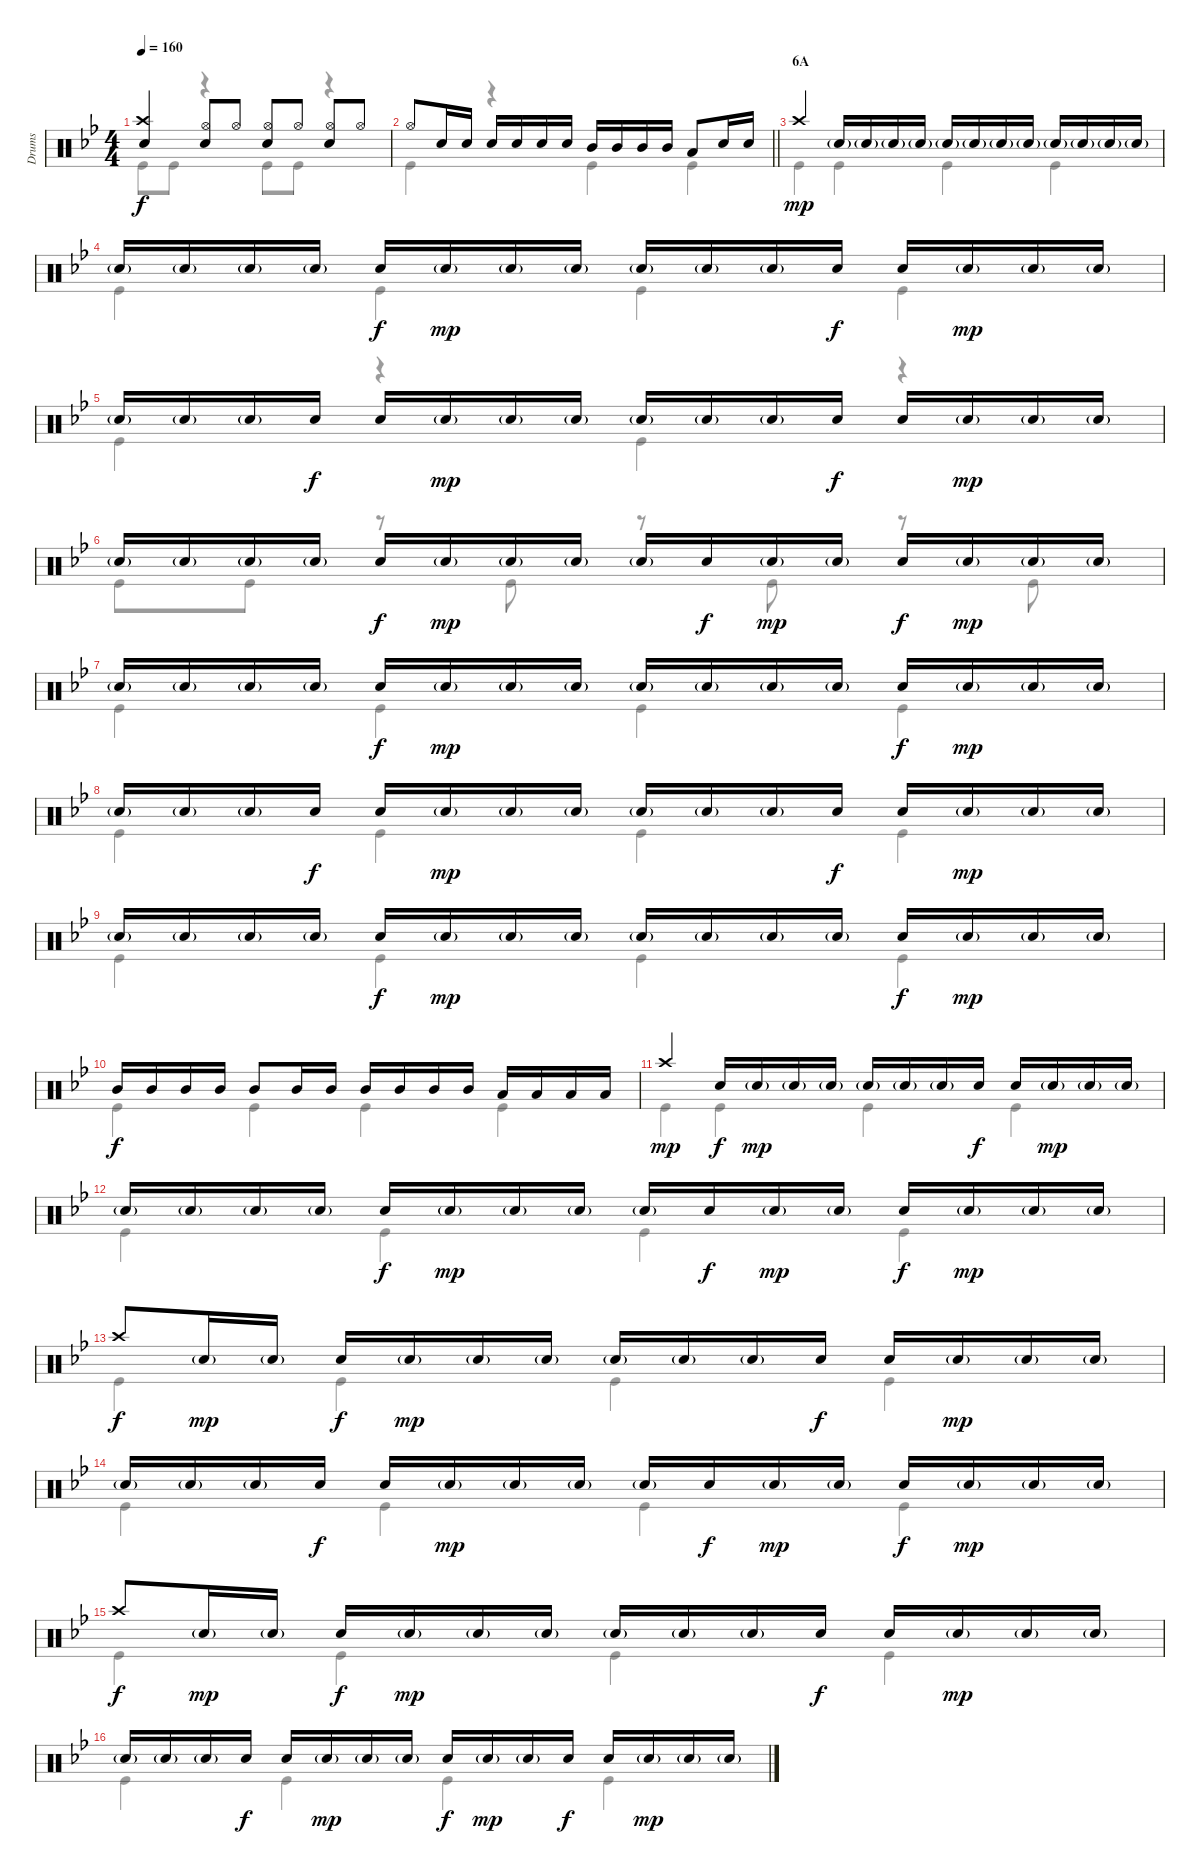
\track ("Drums" "Drums") {instrument percussion}
\staff {score}
\articulation defaults
\voice
\ts (4 4)
\tempo 160
\clef neutral
\ks bb
("Crash high (hit)" "Snare (hit) 2").4{dy f} ("Hi-Hat (open)" "Snare (hit) 2").8 "Hi-Hat (open)".8 ("Hi-Hat (open)" "Snare (hit) 2").8 "Hi-Hat (open)".8 ("Hi-Hat (open)" "Snare (hit) 2").8 "Hi-Hat (open)".8 |
\barLineRight lightlight "Hi-Hat (open)".8 "Snare (hit) 2".16 "Snare (hit) 2".16 "Snare (hit) 2".16 "Snare (hit) 2".16 "Snare (hit) 2".16 "Snare (hit) 2".16 "Mid Tom (hit)".16 "Mid Tom (hit)".16 "Mid Tom (hit)".16 "Mid Tom (hit)".16 "Low Tom (hit)".8 "Snare (hit) 2".16 "Snare (hit) 2".16
|
\section ("" "6A")
"Crash high (hit)".4{dy mp} "Snare (hit) 2"{g}.16 "Snare (hit) 2"{g}.16 "Snare (hit) 2"{g}.16 "Snare (hit) 2"{g}.16 "Snare (hit) 2"{g}.16 "Snare (hit) 2"{g}.16 "Snare (hit) 2"{g}.16 "Snare (hit) 2"{g}.16 "Snare (hit) 2"{g}.16 "Snare (hit) 2"{g}.16 "Snare (hit) 2"{g}.16 "Snare (hit) 2"{g}.16 |
"Snare (hit) 2"{g}.16 "Snare (hit) 2"{g}.16 "Snare (hit) 2"{g}.16 "Snare (hit) 2"{g}.16 "Snare (hit) 2".16{dy f} "Snare (hit) 2"{g}.16{dy mp} "Snare (hit) 2"{g}.16 "Snare (hit) 2"{g}.16 "Snare (hit) 2"{g}.16 "Snare (hit) 2"{g}.16 "Snare (hit) 2"{g}.16 "Snare (hit) 2".16{dy f} "Snare (hit) 2".16 "Snare (hit) 2"{g}.16{dy mp} "Snare (hit) 2"{g}.16 "Snare (hit) 2"{g}.16 |
"Snare (hit) 2"{g}.16 "Snare (hit) 2"{g}.16 "Snare (hit) 2"{g}.16 "Snare (hit) 2".16{dy f} "Snare (hit) 2".16 "Snare (hit) 2"{g}.16{dy mp} "Snare (hit) 2"{g}.16 "Snare (hit) 2"{g}.16 "Snare (hit) 2"{g}.16 "Snare (hit) 2"{g}.16 "Snare (hit) 2"{g}.16 "Snare (hit) 2".16{dy f} "Snare (hit) 2".16 "Snare (hit) 2"{g}.16{dy mp} "Snare (hit) 2"{g}.16 "Snare (hit) 2"{g}.16 |
"Snare (hit) 2"{g}.16 "Snare (hit) 2"{g}.16 "Snare (hit) 2"{g}.16 "Snare (hit) 2"{g}.16 "Snare (hit) 2".16{dy f} "Snare (hit) 2"{g}.16{dy mp} "Snare (hit) 2"{g}.16 "Snare (hit) 2"{g}.16 "Snare (hit) 2"{g}.16 "Snare (hit) 2".16{dy f} "Snare (hit) 2"{g}.16{dy mp} "Snare (hit) 2"{g}.16 "Snare (hit) 2".16{dy f} "Snare (hit) 2"{g}.16{dy mp} "Snare (hit) 2"{g}.16 "Snare (hit) 2"{g}.16 |
"Snare (hit) 2"{g}.16 "Snare (hit) 2"{g}.16 "Snare (hit) 2"{g}.16 "Snare (hit) 2"{g}.16 "Snare (hit) 2".16{dy f} "Snare (hit) 2"{g}.16{dy mp} "Snare (hit) 2"{g}.16 "Snare (hit) 2"{g}.16 "Snare (hit) 2"{g}.16 "Snare (hit) 2"{g}.16 "Snare (hit) 2"{g}.16 "Snare (hit) 2"{g}.16 "Snare (hit) 2".16{dy f} "Snare (hit) 2"{g}.16{dy mp} "Snare (hit) 2"{g}.16 "Snare (hit) 2"{g}.16 |
"Snare (hit) 2"{g}.16 "Snare (hit) 2"{g}.16 "Snare (hit) 2"{g}.16 "Snare (hit) 2".16{dy f} "Snare (hit) 2".16 "Snare (hit) 2"{g}.16{dy mp} "Snare (hit) 2"{g}.16 "Snare (hit) 2"{g}.16 "Snare (hit) 2"{g}.16 "Snare (hit) 2"{g}.16 "Snare (hit) 2"{g}.16 "Snare (hit) 2".16{dy f} "Snare (hit) 2".16 "Snare (hit) 2"{g}.16{dy mp} "Snare (hit) 2"{g}.16 "Snare (hit) 2"{g}.16 |
"Snare (hit) 2"{g}.16 "Snare (hit) 2"{g}.16 "Snare (hit) 2"{g}.16 "Snare (hit) 2"{g}.16 "Snare (hit) 2".16{dy f} "Snare (hit) 2"{g}.16{dy mp} "Snare (hit) 2"{g}.16 "Snare (hit) 2"{g}.16 "Snare (hit) 2"{g}.16 "Snare (hit) 2"{g}.16 "Snare (hit) 2"{g}.16 "Snare (hit) 2"{g}.16 "Snare (hit) 2".16{dy f} "Snare (hit) 2"{g}.16{dy mp} "Snare (hit) 2"{g}.16 "Snare (hit) 2"{g}.16 |
"Mid Tom (hit)".16{dy f} "Mid Tom (hit)".16 "Mid Tom (hit)".16 "Mid Tom (hit)".16 "Mid Tom (hit)".8 "Mid Tom (hit)".16 "Mid Tom (hit)".16 "Mid Tom (hit)".16 "Mid Tom (hit)".16 "Mid Tom (hit)".16 "Mid Tom (hit)".16 "Low Tom (hit)".16 "Low Tom (hit)".16 "Low Tom (hit)".16 "Low Tom (hit)".16 |
"Crash high (hit)".4{dy mp} "Snare (hit) 2".16{dy f} "Snare (hit) 2"{g}.16{dy mp} "Snare (hit) 2"{g}.16 "Snare (hit) 2"{g}.16 "Snare (hit) 2"{g}.16 "Snare (hit) 2"{g}.16 "Snare (hit) 2"{g}.16 "Snare (hit) 2".16{dy f} "Snare (hit) 2".16 "Snare (hit) 2"{g}.16{dy mp} "Snare (hit) 2"{g}.16 "Snare (hit) 2"{g}.16 |
"Snare (hit) 2"{g}.16 "Snare (hit) 2"{g}.16 "Snare (hit) 2"{g}.16 "Snare (hit) 2"{g}.16 "Snare (hit) 2".16{dy f} "Snare (hit) 2"{g}.16{dy mp} "Snare (hit) 2"{g}.16 "Snare (hit) 2"{g}.16 "Snare (hit) 2"{g}.16 "Snare (hit) 2".16{dy f} "Snare (hit) 2"{g}.16{dy mp} "Snare (hit) 2"{g}.16 "Snare (hit) 2".16{dy f} "Snare (hit) 2"{g}.16{dy mp} "Snare (hit) 2"{g}.16 "Snare (hit) 2"{g}.16 |
"Crash high (hit)".8{dy f} "Snare (hit) 2"{g}.16{dy mp} "Snare (hit) 2"{g}.16 "Snare (hit) 2".16{dy f} "Snare (hit) 2"{g}.16{dy mp} "Snare (hit) 2"{g}.16 "Snare (hit) 2"{g}.16 "Snare (hit) 2"{g}.16 "Snare (hit) 2"{g}.16 "Snare (hit) 2"{g}.16 "Snare (hit) 2".16{dy f} "Snare (hit) 2".16 "Snare (hit) 2"{g}.16{dy mp} "Snare (hit) 2"{g}.16 "Snare (hit) 2"{g}.16 |
"Snare (hit) 2"{g}.16 "Snare (hit) 2"{g}.16 "Snare (hit) 2"{g}.16 "Snare (hit) 2".16{dy f} "Snare (hit) 2".16 "Snare (hit) 2"{g}.16{dy mp} "Snare (hit) 2"{g}.16 "Snare (hit) 2"{g}.16 "Snare (hit) 2"{g}.16 "Snare (hit) 2".16{dy f} "Snare (hit) 2"{g}.16{dy mp} "Snare (hit) 2"{g}.16 "Snare (hit) 2".16{dy f} "Snare (hit) 2"{g}.16{dy mp} "Snare (hit) 2"{g}.16 "Snare (hit) 2"{g}.16 |
"Crash high (hit)".8{dy f} "Snare (hit) 2"{g}.16{dy mp} "Snare (hit) 2"{g}.16 "Snare (hit) 2".16{dy f} "Snare (hit) 2"{g}.16{dy mp} "Snare (hit) 2"{g}.16 "Snare (hit) 2"{g}.16 "Snare (hit) 2"{g}.16 "Snare (hit) 2"{g}.16 "Snare (hit) 2"{g}.16 "Snare (hit) 2".16{dy f} "Snare (hit) 2".16 "Snare (hit) 2"{g}.16{dy mp} "Snare (hit) 2"{g}.16 "Snare (hit) 2"{g}.16 |
"Snare (hit) 2"{g}.16 "Snare (hit) 2"{g}.16 "Snare (hit) 2"{g}.16 "Snare (hit) 2".16{dy f} "Snare (hit) 2".16 "Snare (hit) 2"{g}.16{dy mp} "Snare (hit) 2"{g}.16 "Snare (hit) 2"{g}.16 "Snare (hit) 2".16{dy f} "Snare (hit) 2"{g}.16{dy mp} "Snare (hit) 2"{g}.16 "Snare (hit) 2".16{dy f} "Snare (hit) 2".16 "Snare (hit) 2"{g}.16{dy mp} "Snare (hit) 2"{g}.16 "Snare (hit) 2"{g}.16
\voice
\clef neutral
\ottava regular
\simile none
\ks bb "Kick (hit)".8{dy f} "Kick (hit)".8
r.4 "Kick (hit)".8 "Kick (hit)".8 r.4 |
\barLineRight lightlight "Kick (hit)".4
r.4 "Kick (hit)".4 "Kick (hit)".4 |
"Kick (hit)".4 "Kick (hit)".4 "Kick (hit)".4 "Kick (hit)".4 |
"Kick (hit)".4 "Kick (hit)".4 "Kick (hit)".4 "Kick (hit)".4 |
"Kick (hit)".4 r.4 "Kick (hit)".4 r.4 |
"Kick (hit)".8 "Kick (hit)".8 r.8 "Kick (hit)".8 r.8 "Kick (hit)".8 r.8 "Kick (hit)".8 |
"Kick (hit)".4 "Kick (hit)".4 "Kick (hit)".4 "Kick (hit)".4 |
"Kick (hit)".4 "Kick (hit)".4 "Kick (hit)".4 "Kick (hit)".4 |
"Kick (hit)".4 "Kick (hit)".4 "Kick (hit)".4 "Kick (hit)".4 |
"Kick (hit)".4 "Kick (hit)".4 "Kick (hit)".4 "Kick (hit)".4 |
"Kick (hit)".4 "Kick (hit)".4 "Kick (hit)".4 "Kick (hit)".4 |
"Kick (hit)".4 "Kick (hit)".4 "Kick (hit)".4 "Kick (hit)".4 |
"Kick (hit)".4 "Kick (hit)".4 "Kick (hit)".4 "Kick (hit)".4 |
"Kick (hit)".4 "Kick (hit)".4 "Kick (hit)".4 "Kick (hit)".4 |
"Kick (hit)".4 "Kick (hit)".4 "Kick (hit)".4 "Kick (hit)".4 |
"Kick (hit)".4 "Kick (hit)".4 "Kick (hit)".4 "Kick (hit)".4
